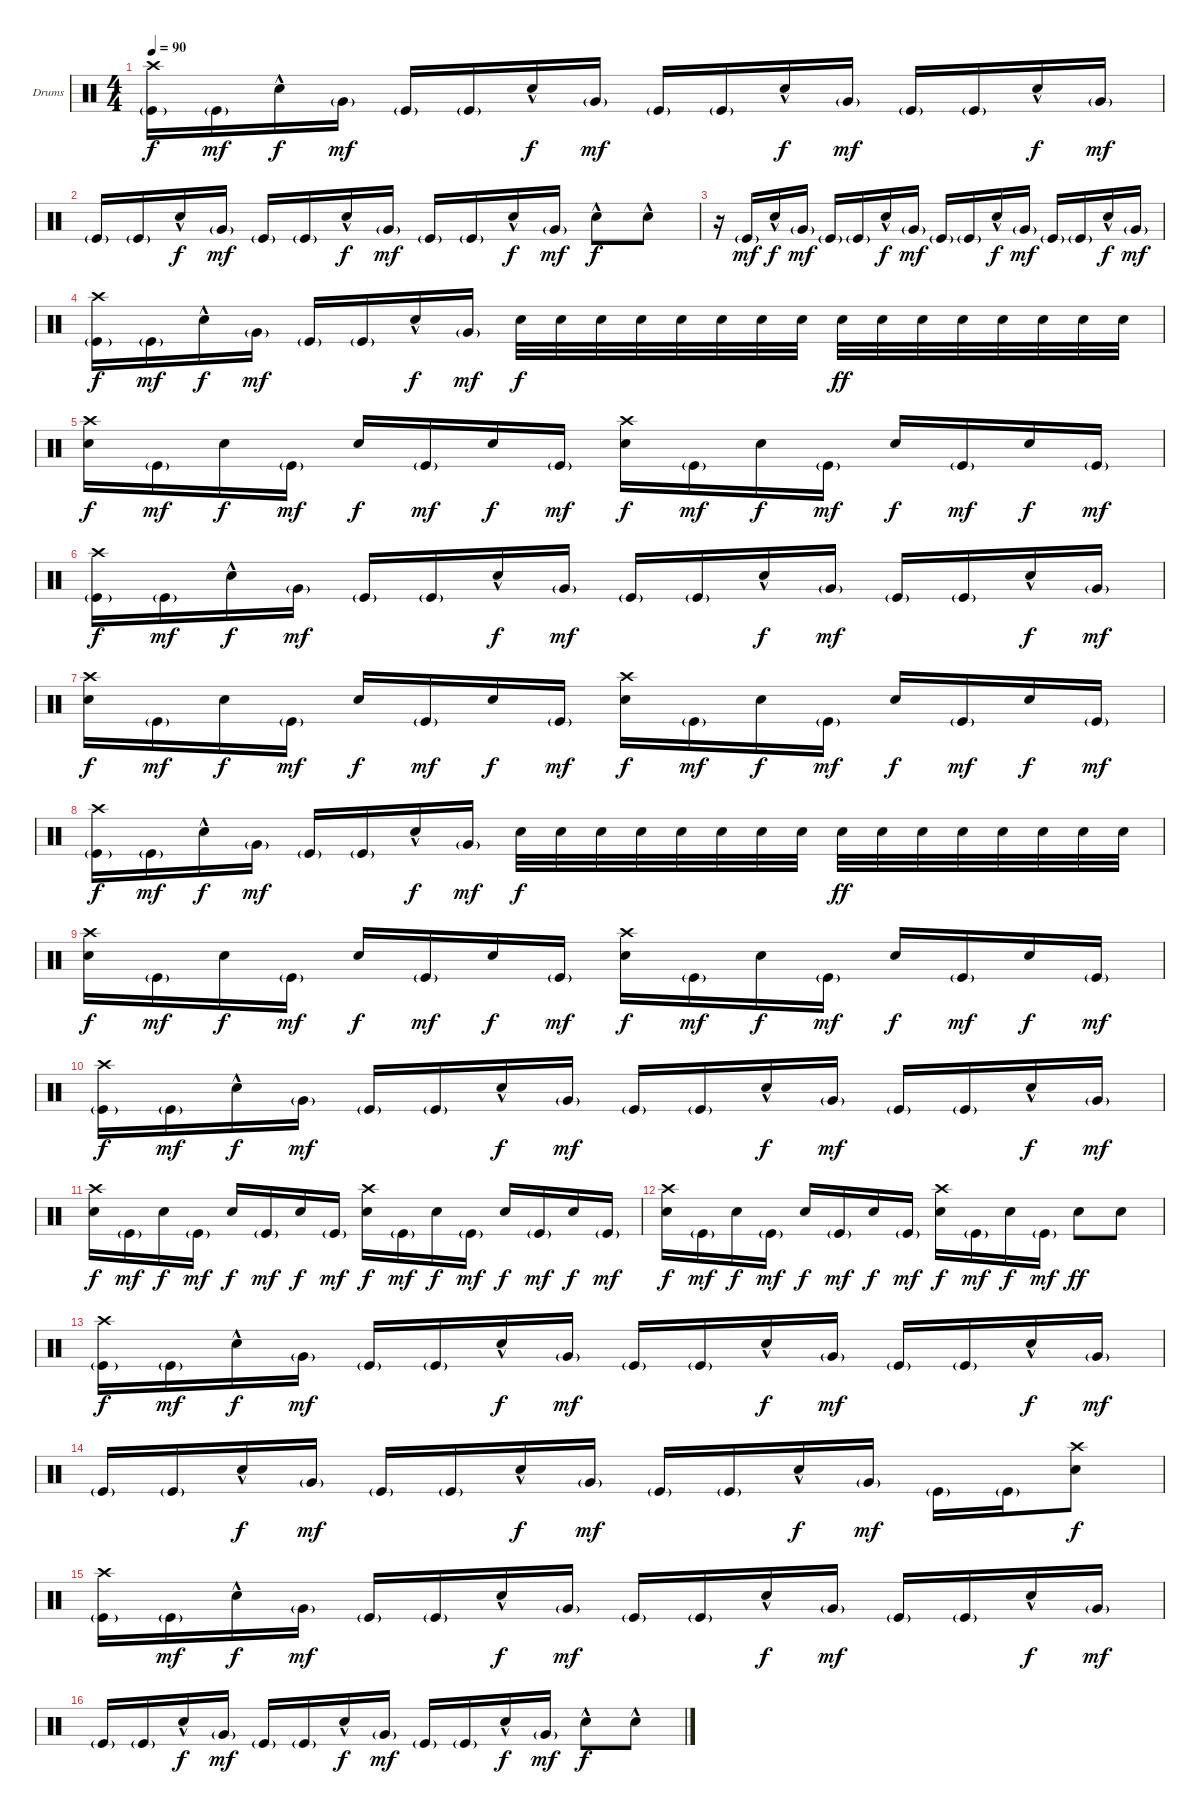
\defaultSystemsLayout 4
\bracketExtendMode groupsimilarinstruments
\firstSystemTrackNameOrientation horizontal
\otherSystemsTrackNameOrientation horizontal
\track ("Drums" "Drums") {instrument percussion}
\staff {score}
\articulation defaults
\ts (4 4)
\tempo 90
\clef neutral
\ks c
("Crash high (hit)" "Kick (hit)"{g}).16{dy f} "Kick (hit)"{g}.16{dy mf} "Snare (hit) 2"{hac}.16{dy f} "Very Low Tom (hit)"{g}.16{dy mf} "Kick (hit)"{g}.16 "Kick (hit)"{g}.16 "Snare (hit) 2"{hac}.16{dy f} "Very Low Tom (hit)"{g}.16{dy mf} "Kick (hit)"{g}.16 "Kick (hit)"{g}.16 "Snare (hit) 2"{hac}.16{dy f} "Very Low Tom (hit)"{g}.16{dy mf} "Kick (hit)"{g}.16 "Kick (hit)"{g}.16 "Snare (hit) 2"{hac}.16{dy f} "Very Low Tom (hit)"{g}.16{dy mf} |
"Kick (hit)"{g}.16 "Kick (hit)"{g}.16 "Snare (hit) 2"{hac}.16{dy f} "Very Low Tom (hit)"{g}.16{dy mf} "Kick (hit)"{g}.16 "Kick (hit)"{g}.16 "Snare (hit) 2"{hac}.16{dy f} "Very Low Tom (hit)"{g}.16{dy mf} "Kick (hit)"{g}.16 "Kick (hit)"{g}.16 "Snare (hit) 2"{hac}.16{dy f} "Very Low Tom (hit)"{g}.16{dy mf} "Snare (hit) 2"{hac}.8{dy f} "Snare (hit) 2"{hac}.8 |
r.16 "Kick (hit)"{g}.16{dy mf} "Snare (hit) 2"{hac}.16{dy f} "Very Low Tom (hit)"{g}.16{dy mf} "Kick (hit)"{g}.16 "Kick (hit)"{g}.16 "Snare (hit) 2"{hac}.16{dy f} "Very Low Tom (hit)"{g}.16{dy mf} "Kick (hit)"{g}.16 "Kick (hit)"{g}.16 "Snare (hit) 2"{hac}.16{dy f} "Very Low Tom (hit)"{g}.16{dy mf} "Kick (hit)"{g}.16 "Kick (hit)"{g}.16 "Snare (hit) 2"{hac}.16{dy f} "Very Low Tom (hit)"{g}.16{dy mf} |
("Crash high (hit)" "Kick (hit)"{g}).16{dy f} "Kick (hit)"{g}.16{dy mf} "Snare (hit) 2"{hac}.16{dy f} "Very Low Tom (hit)"{g}.16{dy mf} "Kick (hit)"{g}.16 "Kick (hit)"{g}.16 "Snare (hit) 2"{hac}.16{dy f} "Very Low Tom (hit)"{g}.16{dy mf} "Snare (hit) 2".32{dy f} "Snare (hit) 2".32 "Snare (hit) 2".32 "Snare (hit) 2".32 "Snare (hit) 2".32 "Snare (hit) 2".32 "Snare (hit) 2".32 "Snare (hit) 2".32 "Snare (hit) 2".32{dy ff} "Snare (hit) 2".32 "Snare (hit) 2".32 "Snare (hit) 2".32 "Snare (hit) 2".32 "Snare (hit) 2".32 "Snare (hit) 2".32 "Snare (hit) 2".32 |
("Crash high (hit)" "Snare (hit) 2").16{dy f} "Kick (hit)"{g}.16{dy mf} "Snare (hit) 2".16{dy f} "Kick (hit)"{g}.16{dy mf} "Snare (hit) 2".16{dy f} "Kick (hit)"{g}.16{dy mf} "Snare (hit) 2".16{dy f} "Kick (hit)"{g}.16{dy mf} ("Crash high (hit)" "Snare (hit) 2").16{dy f} "Kick (hit)"{g}.16{dy mf} "Snare (hit) 2".16{dy f} "Kick (hit)"{g}.16{dy mf} "Snare (hit) 2".16{dy f} "Kick (hit)"{g}.16{dy mf} "Snare (hit) 2".16{dy f} "Kick (hit)"{g}.16{dy mf} |
("Crash high (hit)" "Kick (hit)"{g}).16{dy f} "Kick (hit)"{g}.16{dy mf} "Snare (hit) 2"{hac}.16{dy f} "Very Low Tom (hit)"{g}.16{dy mf} "Kick (hit)"{g}.16 "Kick (hit)"{g}.16 "Snare (hit) 2"{hac}.16{dy f} "Very Low Tom (hit)"{g}.16{dy mf} "Kick (hit)"{g}.16 "Kick (hit)"{g}.16 "Snare (hit) 2"{hac}.16{dy f} "Very Low Tom (hit)"{g}.16{dy mf} "Kick (hit)"{g}.16 "Kick (hit)"{g}.16 "Snare (hit) 2"{hac}.16{dy f} "Very Low Tom (hit)"{g}.16{dy mf} |
("Crash high (hit)" "Snare (hit) 2").16{dy f} "Kick (hit)"{g}.16{dy mf} "Snare (hit) 2".16{dy f} "Kick (hit)"{g}.16{dy mf} "Snare (hit) 2".16{dy f} "Kick (hit)"{g}.16{dy mf} "Snare (hit) 2".16{dy f} "Kick (hit)"{g}.16{dy mf} ("Crash high (hit)" "Snare (hit) 2").16{dy f} "Kick (hit)"{g}.16{dy mf} "Snare (hit) 2".16{dy f} "Kick (hit)"{g}.16{dy mf} "Snare (hit) 2".16{dy f} "Kick (hit)"{g}.16{dy mf} "Snare (hit) 2".16{dy f} "Kick (hit)"{g}.16{dy mf} |
("Crash high (hit)" "Kick (hit)"{g}).16{dy f} "Kick (hit)"{g}.16{dy mf} "Snare (hit) 2"{hac}.16{dy f} "Very Low Tom (hit)"{g}.16{dy mf} "Kick (hit)"{g}.16 "Kick (hit)"{g}.16 "Snare (hit) 2"{hac}.16{dy f} "Very Low Tom (hit)"{g}.16{dy mf} "Snare (hit) 2".32{dy f} "Snare (hit) 2".32 "Snare (hit) 2".32 "Snare (hit) 2".32 "Snare (hit) 2".32 "Snare (hit) 2".32 "Snare (hit) 2".32 "Snare (hit) 2".32 "Snare (hit) 2".32{dy ff} "Snare (hit) 2".32 "Snare (hit) 2".32 "Snare (hit) 2".32 "Snare (hit) 2".32 "Snare (hit) 2".32 "Snare (hit) 2".32 "Snare (hit) 2".32 |
("Crash high (hit)" "Snare (hit) 2").16{dy f} "Kick (hit)"{g}.16{dy mf} "Snare (hit) 2".16{dy f} "Kick (hit)"{g}.16{dy mf} "Snare (hit) 2".16{dy f} "Kick (hit)"{g}.16{dy mf} "Snare (hit) 2".16{dy f} "Kick (hit)"{g}.16{dy mf} ("Crash high (hit)" "Snare (hit) 2").16{dy f} "Kick (hit)"{g}.16{dy mf} "Snare (hit) 2".16{dy f} "Kick (hit)"{g}.16{dy mf} "Snare (hit) 2".16{dy f} "Kick (hit)"{g}.16{dy mf} "Snare (hit) 2".16{dy f} "Kick (hit)"{g}.16{dy mf} |
("Crash high (hit)" "Kick (hit)"{g}).16{dy f} "Kick (hit)"{g}.16{dy mf} "Snare (hit) 2"{hac}.16{dy f} "Very Low Tom (hit)"{g}.16{dy mf} "Kick (hit)"{g}.16 "Kick (hit)"{g}.16 "Snare (hit) 2"{hac}.16{dy f} "Very Low Tom (hit)"{g}.16{dy mf} "Kick (hit)"{g}.16 "Kick (hit)"{g}.16 "Snare (hit) 2"{hac}.16{dy f} "Very Low Tom (hit)"{g}.16{dy mf} "Kick (hit)"{g}.16 "Kick (hit)"{g}.16 "Snare (hit) 2"{hac}.16{dy f} "Very Low Tom (hit)"{g}.16{dy mf} |
("Crash high (hit)" "Snare (hit) 2").16{dy f} "Kick (hit)"{g}.16{dy mf} "Snare (hit) 2".16{dy f} "Kick (hit)"{g}.16{dy mf} "Snare (hit) 2".16{dy f} "Kick (hit)"{g}.16{dy mf} "Snare (hit) 2".16{dy f} "Kick (hit)"{g}.16{dy mf} ("Crash high (hit)" "Snare (hit) 2").16{dy f} "Kick (hit)"{g}.16{dy mf} "Snare (hit) 2".16{dy f} "Kick (hit)"{g}.16{dy mf} "Snare (hit) 2".16{dy f} "Kick (hit)"{g}.16{dy mf} "Snare (hit) 2".16{dy f} "Kick (hit)"{g}.16{dy mf} |
("Crash high (hit)" "Snare (hit) 2").16{dy f} "Kick (hit)"{g}.16{dy mf} "Snare (hit) 2".16{dy f} "Kick (hit)"{g}.16{dy mf} "Snare (hit) 2".16{dy f} "Kick (hit)"{g}.16{dy mf} "Snare (hit) 2".16{dy f} "Kick (hit)"{g}.16{dy mf} ("Crash high (hit)" "Snare (hit) 2").16{dy f} "Kick (hit)"{g}.16{dy mf} "Snare (hit) 2".16{dy f} "Kick (hit)"{g}.16{dy mf} "Snare (hit) 2".8{dy ff} "Snare (hit) 2".8 |
("Crash high (hit)" "Kick (hit)"{g}).16{dy f} "Kick (hit)"{g}.16{dy mf} "Snare (hit) 2"{hac}.16{dy f} "Very Low Tom (hit)"{g}.16{dy mf} "Kick (hit)"{g}.16 "Kick (hit)"{g}.16 "Snare (hit) 2"{hac}.16{dy f} "Very Low Tom (hit)"{g}.16{dy mf} "Kick (hit)"{g}.16 "Kick (hit)"{g}.16 "Snare (hit) 2"{hac}.16{dy f} "Very Low Tom (hit)"{g}.16{dy mf} "Kick (hit)"{g}.16 "Kick (hit)"{g}.16 "Snare (hit) 2"{hac}.16{dy f} "Very Low Tom (hit)"{g}.16{dy mf} |
"Kick (hit)"{g}.16 "Kick (hit)"{g}.16 "Snare (hit) 2"{hac}.16{dy f} "Very Low Tom (hit)"{g}.16{dy mf} "Kick (hit)"{g}.16 "Kick (hit)"{g}.16 "Snare (hit) 2"{hac}.16{dy f} "Very Low Tom (hit)"{g}.16{dy mf} "Kick (hit)"{g}.16 "Kick (hit)"{g}.16 "Snare (hit) 2"{hac}.16{dy f} "Very Low Tom (hit)"{g}.16{dy mf} "Kick (hit)"{g}.16 "Kick (hit)"{g}.16 ("Crash high (hit)" "Snare (hit) 2").8{dy f} |
("Crash high (hit)" "Kick (hit)"{g}).16 "Kick (hit)"{g}.16{dy mf} "Snare (hit) 2"{hac}.16{dy f} "Very Low Tom (hit)"{g}.16{dy mf} "Kick (hit)"{g}.16 "Kick (hit)"{g}.16 "Snare (hit) 2"{hac}.16{dy f} "Very Low Tom (hit)"{g}.16{dy mf} "Kick (hit)"{g}.16 "Kick (hit)"{g}.16 "Snare (hit) 2"{hac}.16{dy f} "Very Low Tom (hit)"{g}.16{dy mf} "Kick (hit)"{g}.16 "Kick (hit)"{g}.16 "Snare (hit) 2"{hac}.16{dy f} "Very Low Tom (hit)"{g}.16{dy mf} |
"Kick (hit)"{g}.16 "Kick (hit)"{g}.16 "Snare (hit) 2"{hac}.16{dy f} "Very Low Tom (hit)"{g}.16{dy mf} "Kick (hit)"{g}.16 "Kick (hit)"{g}.16 "Snare (hit) 2"{hac}.16{dy f} "Very Low Tom (hit)"{g}.16{dy mf} "Kick (hit)"{g}.16 "Kick (hit)"{g}.16 "Snare (hit) 2"{hac}.16{dy f} "Very Low Tom (hit)"{g}.16{dy mf} "Snare (hit) 2"{hac}.8{dy f} "Snare (hit) 2"{hac}.8
